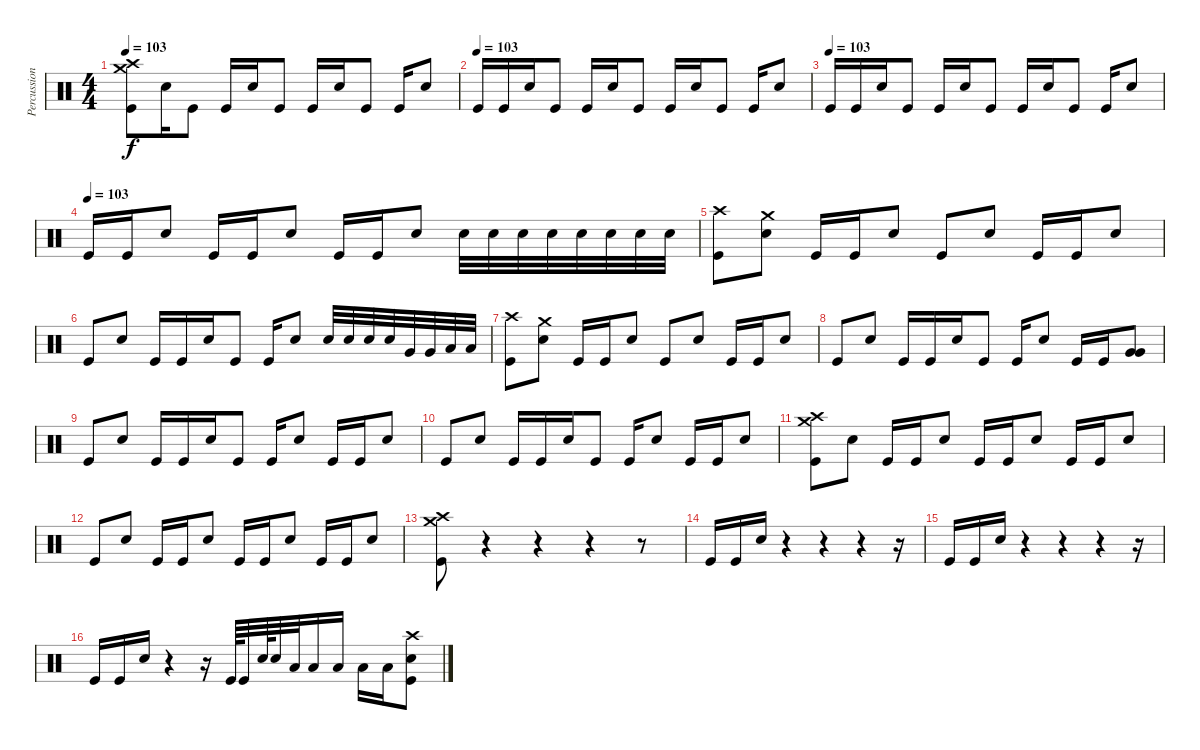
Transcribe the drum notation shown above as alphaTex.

\track ("Percussion" "Percussion") {instrument percussion}
\staff {score}
\articulation defaults
\ts (4 4)
\tempo 103
\clef neutral
\ks c
("Crash high (hit)" "Crash medium (hit)" "Kick (hit)").8{dy f} "Electric Snare (hit)".16 "Kick (hit)".8 "Kick (hit)".16 "Electric Snare (hit)".16 "Kick (hit)".8 "Kick (hit)".16 "Electric Snare (hit)".16 "Kick (hit)".8 "Kick (hit)".16 "Electric Snare (hit)".8 |
\tempo (103)
"Kick (hit)".16 "Kick (hit)".16 "Electric Snare (hit)".16 "Kick (hit)".8 "Kick (hit)".16 "Electric Snare (hit)".16 "Kick (hit)".8 "Kick (hit)".16 "Electric Snare (hit)".16 "Kick (hit)".8 "Kick (hit)".16 "Electric Snare (hit)".8 |
\tempo (103)
"Kick (hit)".16 "Kick (hit)".16 "Electric Snare (hit)".16 "Kick (hit)".8 "Kick (hit)".16 "Electric Snare (hit)".16 "Kick (hit)".8 "Kick (hit)".16 "Electric Snare (hit)".16 "Kick (hit)".8 "Kick (hit)".16 "Electric Snare (hit)".8 |
\tempo (103)
"Kick (hit)".16 "Kick (hit)".16 "Electric Snare (hit)".8 "Kick (hit)".16 "Kick (hit)".16 "Electric Snare (hit)".8 "Kick (hit)".16 "Kick (hit)".16 "Electric Snare (hit)".8 "Electric Snare (hit)".32 "Electric Snare (hit)".32 "Electric Snare (hit)".32 "Electric Snare (hit)".32 "Electric Snare (hit)".32 "Electric Snare (hit)".32 "Electric Snare (hit)".32 "Electric Snare (hit)".32 |
("Crash high (hit)" "Kick (hit)").8 ("Crash medium (hit)" "Electric Snare (hit)").8 "Kick (hit)".16 "Kick (hit)".16 "Electric Snare (hit)".8 "Kick (hit)".8 "Electric Snare (hit)".8 "Kick (hit)".16 "Kick (hit)".16 "Electric Snare (hit)".8 |
"Kick (hit)".8 "Electric Snare (hit)".8 "Kick (hit)".16 "Kick (hit)".16 "Electric Snare (hit)".16 "Kick (hit)".8 "Kick (hit)".16 "Electric Snare (hit)".8 "Electric Snare (hit)".32 "Electric Snare (hit)".32 "Electric Snare (hit)".32 "Electric Snare (hit)".32 "Very Low Tom (hit)".32 "Very Low Tom (hit)".32 "Low Floor Tom (hit)".32 "Low Floor Tom (hit)".32 |
("Crash high (hit)" "Kick (hit)").8 ("Crash medium (hit)" "Electric Snare (hit)").8 "Kick (hit)".16 "Kick (hit)".16 "Electric Snare (hit)".8 "Kick (hit)".8 "Electric Snare (hit)".8 "Kick (hit)".16 "Kick (hit)".16 "Electric Snare (hit)".8 |
"Kick (hit)".8 "Electric Snare (hit)".8 "Kick (hit)".16 "Kick (hit)".16 "Electric Snare (hit)".16 "Kick (hit)".8 "Kick (hit)".16 "Electric Snare (hit)".8 "Kick (hit)".16 "Kick (hit)".16 ("Very Low Tom (hit)" "Very Low Tom (hit)").8 |
"Kick (hit)".8 "Electric Snare (hit)".8 "Kick (hit)".16 "Kick (hit)".16 "Electric Snare (hit)".16 "Kick (hit)".8 "Kick (hit)".16 "Electric Snare (hit)".8 "Kick (hit)".16 "Kick (hit)".16 "Electric Snare (hit)".8 |
"Kick (hit)".8 "Electric Snare (hit)".8 "Kick (hit)".16 "Kick (hit)".16 "Electric Snare (hit)".16 "Kick (hit)".8 "Kick (hit)".16 "Electric Snare (hit)".8 "Kick (hit)".16 "Kick (hit)".16 "Electric Snare (hit)".8 |
("Crash medium (hit)" "Crash high (hit)" "Kick (hit)").8 "Electric Snare (hit)".8 "Kick (hit)".16 "Kick (hit)".16 "Electric Snare (hit)".8 "Kick (hit)".16 "Kick (hit)".16 "Electric Snare (hit)".8 "Kick (hit)".16 "Kick (hit)".16 "Electric Snare (hit)".8 |
"Kick (hit)".8 "Electric Snare (hit)".8 "Kick (hit)".16 "Kick (hit)".16 "Electric Snare (hit)".8 "Kick (hit)".16 "Kick (hit)".16 "Electric Snare (hit)".8 "Kick (hit)".16 "Kick (hit)".16 "Electric Snare (hit)".8 |
("Crash high (hit)" "Crash medium (hit)" "Kick (hit)").8 r.4 r.4 r.4 r.8 |
"Kick (hit)".16 "Kick (hit)".16 "Electric Snare (hit)".16 r.4 r.4 r.4 r.16 |
"Kick (hit)".16 "Kick (hit)".16 "Electric Snare (hit)".16 r.4 r.4 r.4 r.16 |
"Kick (hit)".16 "Kick (hit)".16 "Electric Snare (hit)".16 r.4 r.16 "Kick (hit)".64 "Kick (hit)".32 "Electric Snare (hit)".64 "Electric Snare (hit)".32 "Low Floor Tom (hit)".32 "Low Floor Tom (hit)".16 "Low Floor Tom (hit)".16 "Low Floor Tom (hit)".16 "Low Floor Tom (hit)".16 ("Crash high (hit)" "Electric Snare (hit)" "Kick (hit)").8
